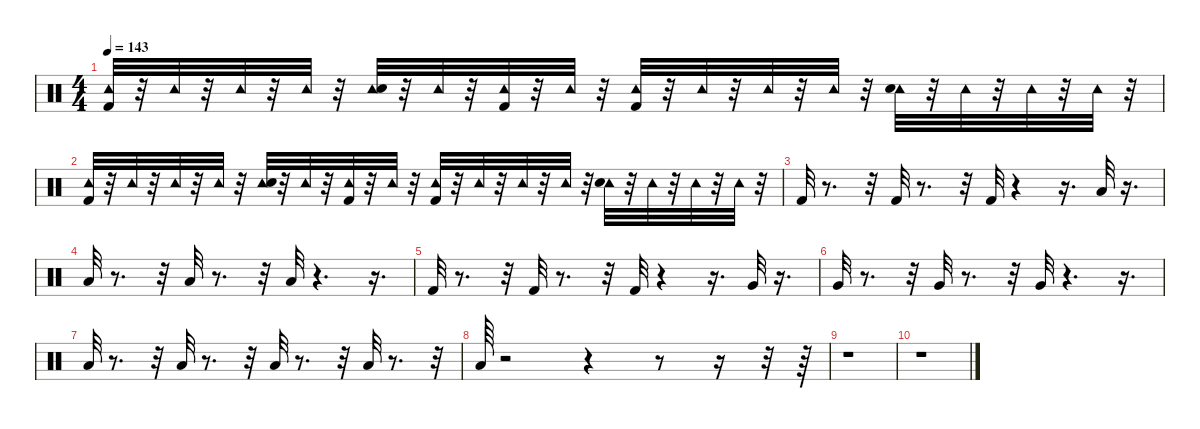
\defaultSystemsLayout 4
\hideDynamics
\bracketExtendMode nobrackets
\singleTrackTrackNamePolicy hidden
\multiTrackTrackNamePolicy hidden
\firstSystemTrackNameMode fullname
\firstSystemTrackNameOrientation horizontal
\otherSystemsTrackNameOrientation horizontal
\track ("Drums" "drm.") {instrument percussion}
\staff {score}
\articulation defaults
\ts (4 4)
\tempo 143
\clef neutral
\ks c
("Kick (hit) 2" "Tambourine (hit)").32{dy ff beam Up} r.32{beam Up} "Tambourine (hit)".32{dy mf beam Up} r.32{beam Up} "Tambourine (hit)".32{beam Up} r.32{beam Up} "Tambourine (hit)".32{beam Up} r.32{beam Up} ("Tambourine (hit)" "Snare (hit) 2").32{dy fff beam Up} r.32{beam Up} "Tambourine (hit)".32{dy mf beam Up} r.32{beam Up} ("Kick (hit) 2" "Tambourine (hit)").32{dy fff beam Up} r.32{beam Up} "Tambourine (hit)".32{dy mf beam Up} r.32{beam Up} ("Kick (hit) 2" "Tambourine (hit)").32{dy ff beam Up} r.32{beam Up} "Tambourine (hit)".32{dy mf beam Up} r.32{beam Up} "Tambourine (hit)".32{dy mp beam Up} r.32{beam Up} "Tambourine (hit)".32{dy mf beam Up} r.32{beam Up} ("Tambourine (hit)" "Snare (hit) 2").32{dy fff beam Down} r.32{beam Down} "Tambourine (hit)".32{dy mf beam Down} r.32{beam Down} "Tambourine (hit)".32{beam Down} r.32{beam Down} "Tambourine (hit)".32{beam Down} r.32{beam Down} |
("Kick (hit) 2" "Tambourine (hit)").32{dy ff beam Up} r.32{beam Up} "Tambourine (hit)".32{dy mf beam Up} r.32{beam Up} "Tambourine (hit)".32{beam Up} r.32{beam Up} "Tambourine (hit)".32{beam Up} r.32{beam Up} ("Tambourine (hit)" "Snare (hit) 2").32{dy fff beam Up} r.32{beam Up} "Tambourine (hit)".32{dy mf beam Up} r.32{beam Up} ("Kick (hit) 2" "Tambourine (hit)").32{dy fff beam Up} r.32{beam Up} "Tambourine (hit)".32{dy mf beam Up} r.32{beam Up} ("Kick (hit) 2" "Tambourine (hit)").32{dy ff beam Up} r.32{beam Up} "Tambourine (hit)".32{dy mf beam Up} r.32{beam Up} "Tambourine (hit)".32{dy mp beam Up} r.32{beam Up} "Tambourine (hit)".32{dy mf beam Up} r.32{beam Up} ("Tambourine (hit)" "Snare (hit) 2").32{dy fff beam Down} r.32{beam Down} "Tambourine (hit)".32{dy mf beam Down} r.32{beam Down} "Tambourine (hit)".32{beam Down} r.32{beam Down} "Tambourine (hit)".32{beam Down} r.32{beam Down} |
"Kick (hit) 2".32{dy fff beam Up} r.8{d beam Up} r.32{beam Up} "Kick (hit) 2".32{beam Up} r.8{d beam Up} r.32{beam Up} "Kick (hit) 2".32{beam Up} r.4{beam Up} r.16{d beam Up} "Low Tom (hit)".32{dy ff beam Up} r.16{d beam Up} |
"Low Tom (hit)".32{dy fff beam Up} r.8{d beam Up} r.32{beam Up} "Low Tom (hit)".32{dy ff beam Up} r.8{d beam Up} r.32{beam Up} "Low Tom (hit)".32{dy fff beam Up} r.4{d beam Up} r.16{d beam Up} |
"Kick (hit) 2".32{beam Up} r.8{d beam Up} r.32{beam Up} "Kick (hit) 2".32{beam Up} r.8{d beam Up} r.32{beam Up} "Kick (hit) 2".32{beam Up} r.4{beam Up} r.16{d beam Up} "Very Low Tom (hit)".32{beam Up} r.16{d beam Up} |
"Very Low Tom (hit)".32{dy ff beam Up} r.8{d beam Up} r.32{beam Up} "Very Low Tom (hit)".32{beam Up} r.8{d beam Up} r.32{beam Up} "Very Low Tom (hit)".32{dy fff beam Up} r.4{d beam Up} r.16{d beam Up} |
"Low Floor Tom (hit)".32{dy ff beam Up} r.8{d beam Up} r.32{beam Up} "Low Floor Tom (hit)".32{beam Up} r.8{d beam Up} r.32{beam Up} "Low Floor Tom (hit)".32{beam Up} r.8{d beam Up} r.32{beam Up} "Low Floor Tom (hit)".32{beam Up} r.8{d beam Up} r.32{beam Up} |
"Low Floor Tom (hit)".64{dy fff beam Up} r.2{beam Up} r.4{beam Up} r.8{beam Up} r.16{beam Up} r.32{beam Up} r.64{beam Up} |
r.1{beam Down} |
r.1{beam Down}
